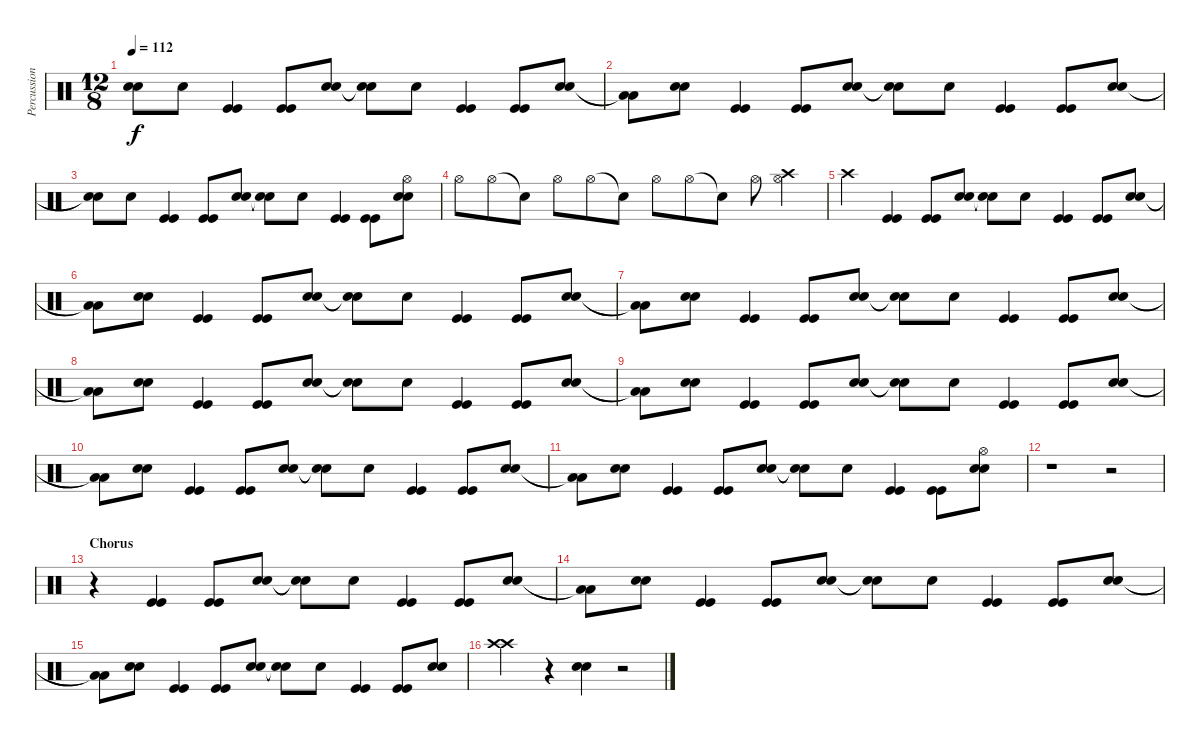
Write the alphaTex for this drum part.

\track ("Percussions" "Percussion") {instrument percussion}
\staff {score}
\articulation defaults
\ts (12 8)
\tempo 112
\clef neutral
\ks c
("Snare (hit)"{t} "Snare (hit)"{t}).8{dy f} "Snare (hit) 2".8 ("Kick (hit)" "Kick (hit)").4 ("Kick (hit)" "Kick (hit)").8 ("Snare (hit) 2" "Snare (hit) 2").8 ("Snare (hit)"{t} "Snare (hit)"{t}).8 "Snare (hit) 2".8 ("Kick (hit)" "Kick (hit)").4 ("Kick (hit)" "Kick (hit)").8 ("Snare (hit) 2" "Snare (hit) 2").8 |
("Low Floor Tom (hit)"{t} "Low Floor Tom (hit)"{t}).8 ("Snare (hit) 2" "Snare (hit) 2").8 ("Kick (hit)" "Kick (hit)").4 ("Kick (hit)" "Kick (hit)").8 ("Snare (hit) 2" "Snare (hit) 2").8 ("Snare (hit)"{t} "Snare (hit)"{t}).8 "Snare (hit) 2".8 ("Kick (hit)" "Kick (hit)").4 ("Kick (hit)" "Kick (hit)").8 ("Snare (hit) 2" "Snare (hit) 2").8 |
("Snare (hit)"{t} "Snare (hit)"{t}).8 "Snare (hit) 2".8 ("Kick (hit)" "Kick (hit)").4 ("Kick (hit)" "Kick (hit)").8 ("Snare (hit) 2" "Snare (hit) 2").8 ("Snare (hit)"{t} "Snare (hit)"{t}).8 "Snare (hit) 2".8 ("Kick (hit)" "Kick (hit)").4 ("Kick (hit)" "Kick (hit)").8 ("Snare (hit) 2" "Snare (hit) 2" "Hi-Hat (open)").8 |
"Hi-Hat (open)".8 "Hi-Hat (open)".8 "Snare (hit)"{t}.8 "Hi-Hat (open)".8 "Hi-Hat (open)".8 "Snare (hit)"{t}.8 "Hi-Hat (open)".8 "Hi-Hat (open)".8 "Snare (hit)"{t}.8 "Hi-Hat (open)".8 ("Hi-Hat (open)" "Crash high (hit)").4 |
"Crash high (hit)".4 ("Kick (hit)" "Kick (hit)").4 ("Kick (hit)" "Kick (hit)").8 ("Snare (hit) 2" "Snare (hit) 2").8 ("Snare (hit)"{t} "Snare (hit)"{t}).8 "Snare (hit) 2".8 ("Kick (hit)" "Kick (hit)").4 ("Kick (hit)" "Kick (hit)").8 ("Snare (hit) 2" "Snare (hit) 2").8 |
("Low Floor Tom (hit)"{t} "Low Floor Tom (hit)"{t}).8 ("Snare (hit) 2" "Snare (hit) 2").8 ("Kick (hit)" "Kick (hit)").4 ("Kick (hit)" "Kick (hit)").8 ("Snare (hit) 2" "Snare (hit) 2").8 ("Snare (hit)"{t} "Snare (hit)"{t}).8 "Snare (hit) 2".8 ("Kick (hit)" "Kick (hit)").4 ("Kick (hit)" "Kick (hit)").8 ("Snare (hit) 2" "Snare (hit) 2").8 |
("Low Floor Tom (hit)"{t} "Low Floor Tom (hit)"{t}).8 ("Snare (hit) 2" "Snare (hit) 2").8 ("Kick (hit)" "Kick (hit)").4 ("Kick (hit)" "Kick (hit)").8 ("Snare (hit) 2" "Snare (hit) 2").8 ("Snare (hit)"{t} "Snare (hit)"{t}).8 "Snare (hit) 2".8 ("Kick (hit)" "Kick (hit)").4 ("Kick (hit)" "Kick (hit)").8 ("Snare (hit) 2" "Snare (hit) 2").8 |
("Low Floor Tom (hit)"{t} "Low Floor Tom (hit)"{t}).8 ("Snare (hit) 2" "Snare (hit) 2").8 ("Kick (hit)" "Kick (hit)").4 ("Kick (hit)" "Kick (hit)").8 ("Snare (hit) 2" "Snare (hit) 2").8 ("Snare (hit)"{t} "Snare (hit)"{t}).8 "Snare (hit) 2".8 ("Kick (hit)" "Kick (hit)").4 ("Kick (hit)" "Kick (hit)").8 ("Snare (hit) 2" "Snare (hit) 2").8 |
("Low Floor Tom (hit)"{t} "Low Floor Tom (hit)"{t}).8 ("Snare (hit) 2" "Snare (hit) 2").8 ("Kick (hit)" "Kick (hit)").4 ("Kick (hit)" "Kick (hit)").8 ("Snare (hit) 2" "Snare (hit) 2").8 ("Snare (hit)"{t} "Snare (hit)"{t}).8 "Snare (hit) 2".8 ("Kick (hit)" "Kick (hit)").4 ("Kick (hit)" "Kick (hit)").8 ("Snare (hit) 2" "Snare (hit) 2").8 |
("Low Floor Tom (hit)"{t} "Low Floor Tom (hit)"{t}).8 ("Snare (hit) 2" "Snare (hit) 2").8 ("Kick (hit)" "Kick (hit)").4 ("Kick (hit)" "Kick (hit)").8 ("Snare (hit) 2" "Snare (hit) 2").8 ("Snare (hit)"{t} "Snare (hit)"{t}).8 "Snare (hit) 2".8 ("Kick (hit)" "Kick (hit)").4 ("Kick (hit)" "Kick (hit)").8 ("Snare (hit) 2" "Snare (hit) 2").8 |
("Low Floor Tom (hit)"{t} "Low Floor Tom (hit)"{t}).8 ("Snare (hit) 2" "Snare (hit) 2").8 ("Kick (hit)" "Kick (hit)").4 ("Kick (hit)" "Kick (hit)").8 ("Snare (hit) 2" "Snare (hit) 2").8 ("Snare (hit)"{t} "Snare (hit)"{t}).8 "Snare (hit) 2".8 ("Kick (hit)" "Kick (hit)").4 ("Kick (hit)" "Kick (hit)").8 ("Snare (hit) 2" "Snare (hit) 2" "Hi-Hat (open)").8 |
r.1 r.2 |
\section ("" "Chorus")
r.4 ("Kick (hit)" "Kick (hit)").4 ("Kick (hit)" "Kick (hit)").8 ("Snare (hit) 2" "Snare (hit) 2").8 ("Snare (hit)"{t} "Snare (hit)"{t}).8 "Snare (hit) 2".8 ("Kick (hit)" "Kick (hit)").4 ("Kick (hit)" "Kick (hit)").8 ("Snare (hit) 2" "Snare (hit) 2").8 |
("Low Floor Tom (hit)"{t} "Low Floor Tom (hit)"{t}).8 ("Snare (hit) 2" "Snare (hit) 2").8 ("Kick (hit)" "Kick (hit)").4 ("Kick (hit)" "Kick (hit)").8 ("Snare (hit) 2" "Snare (hit) 2").8 ("Snare (hit)"{t} "Snare (hit)"{t}).8 "Snare (hit) 2".8 ("Kick (hit)" "Kick (hit)").4 ("Kick (hit)" "Kick (hit)").8 ("Snare (hit) 2" "Snare (hit) 2").8 |
("Low Floor Tom (hit)"{t} "Low Floor Tom (hit)"{t}).8 ("Snare (hit) 2" "Snare (hit) 2").8 ("Kick (hit)" "Kick (hit)").4 ("Kick (hit)" "Kick (hit)").8 ("Snare (hit) 2" "Snare (hit) 2").8 ("Snare (hit)"{t} "Snare (hit)"{t}).8 "Snare (hit) 2".8 ("Kick (hit)" "Kick (hit)").4 ("Kick (hit)" "Kick (hit)").8 ("Snare (hit) 2" "Snare (hit) 2").8 |
("Crash high (hit)" "Crash high (hit)").2 r.4 ("Snare (hit) 2" "Snare (hit) 2").4 r.2
